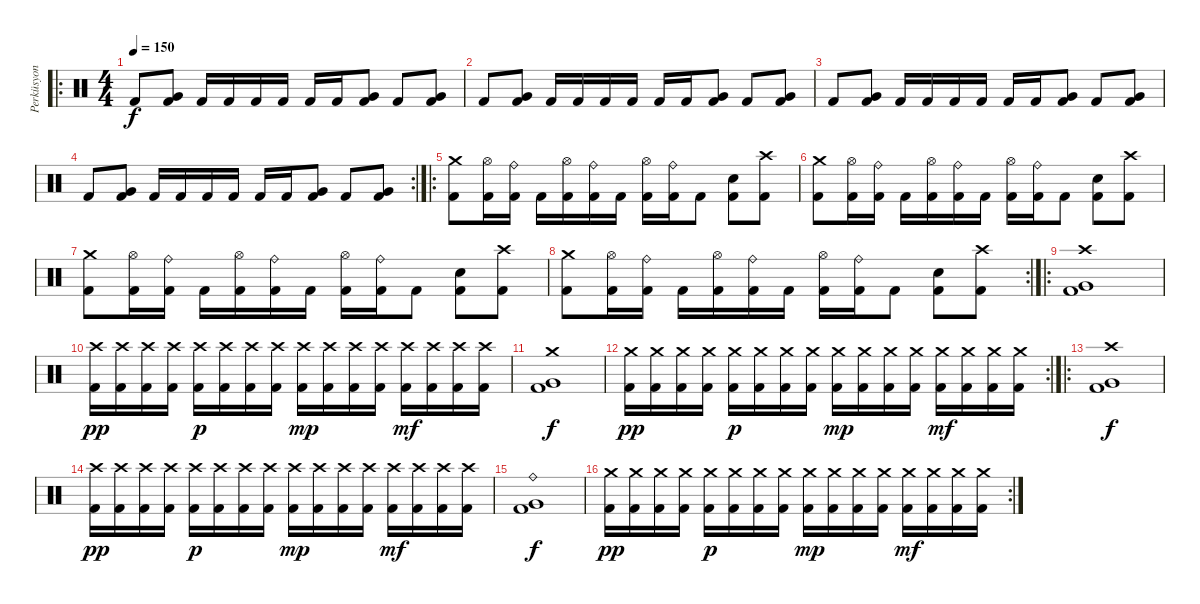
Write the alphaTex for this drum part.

\track ("Perküsyon" "Perküsyon") {instrument percussion}
\staff {score}
\articulation defaults
\ro
\ts (4 4)
\tempo 150
\clef neutral
\ks c "Kick (hit) 2".8{dy f}
("Very Low Tom (hit)" "Kick (hit) 2").8 "Kick (hit) 2".16 "Kick (hit) 2".16 "Kick (hit) 2".16 "Kick (hit) 2".16 "Kick (hit) 2".16 "Kick (hit) 2".16 ("Very Low Tom (hit)" "Kick (hit) 2").8 "Kick (hit) 2".8 ("Very Low Tom (hit)" "Kick (hit) 2").8 |
"Kick (hit) 2".8 ("Very Low Tom (hit)" "Kick (hit) 2").8 "Kick (hit) 2".16 "Kick (hit) 2".16 "Kick (hit) 2".16 "Kick (hit) 2".16 "Kick (hit) 2".16 "Kick (hit) 2".16 ("Very Low Tom (hit)" "Kick (hit) 2").8 "Kick (hit) 2".8 ("Very Low Tom (hit)" "Kick (hit) 2").8 |
"Kick (hit) 2".8 ("Very Low Tom (hit)" "Kick (hit) 2").8 "Kick (hit) 2".16 "Kick (hit) 2".16 "Kick (hit) 2".16 "Kick (hit) 2".16 "Kick (hit) 2".16 "Kick (hit) 2".16 ("Very Low Tom (hit)" "Kick (hit) 2").8 "Kick (hit) 2".8 ("Very Low Tom (hit)" "Kick (hit) 2").8 |
\rc 2 "Kick (hit) 2".8
("Very Low Tom (hit)" "Kick (hit) 2").8 "Kick (hit) 2".16 "Kick (hit) 2".16 "Kick (hit) 2".16 "Kick (hit) 2".16 "Kick (hit) 2".16 "Kick (hit) 2".16 ("Very Low Tom (hit)" "Kick (hit) 2").8 "Kick (hit) 2".8 ("Very Low Tom (hit)" "Kick (hit) 2").8 |
\ro
("Crash medium (hit)" "Kick (hit) 2").8 ("Hi-Hat (open)" "Kick (hit) 2").16 ("Ride (bell)" "Kick (hit) 2").16 "Kick (hit) 2".16 ("Hi-Hat (open)" "Kick (hit) 2").16 ("Ride (bell)" "Kick (hit) 2").16 "Kick (hit) 2".16 ("Hi-Hat (open)" "Kick (hit) 2").16 ("Ride (bell)" "Kick (hit) 2").16 "Kick (hit) 2".8 ("Snare (hit) 2" "Kick (hit) 2").8 ("Crash high (hit)" "Kick (hit) 2").8 |
("Crash medium (hit)" "Kick (hit) 2").8 ("Hi-Hat (open)" "Kick (hit) 2").16 ("Ride (bell)" "Kick (hit) 2").16 "Kick (hit) 2".16 ("Hi-Hat (open)" "Kick (hit) 2").16 ("Ride (bell)" "Kick (hit) 2").16 "Kick (hit) 2".16 ("Hi-Hat (open)" "Kick (hit) 2").16 ("Ride (bell)" "Kick (hit) 2").16 "Kick (hit) 2".8 ("Snare (hit) 2" "Kick (hit) 2").8 ("Crash high (hit)" "Kick (hit) 2").8 |
("Crash medium (hit)" "Kick (hit) 2").8 ("Hi-Hat (open)" "Kick (hit) 2").16 ("Ride (bell)" "Kick (hit) 2").16 "Kick (hit) 2".16 ("Hi-Hat (open)" "Kick (hit) 2").16 ("Ride (bell)" "Kick (hit) 2").16 "Kick (hit) 2".16 ("Hi-Hat (open)" "Kick (hit) 2").16 ("Ride (bell)" "Kick (hit) 2").16 "Kick (hit) 2".8 ("Snare (hit) 2" "Kick (hit) 2").8 ("Crash high (hit)" "Kick (hit) 2").8 |
\rc 2
("Crash medium (hit)" "Kick (hit) 2").8 ("Hi-Hat (open)" "Kick (hit) 2").16 ("Ride (bell)" "Kick (hit) 2").16 "Kick (hit) 2".16 ("Hi-Hat (open)" "Kick (hit) 2").16 ("Ride (bell)" "Kick (hit) 2").16 "Kick (hit) 2".16 ("Hi-Hat (open)" "Kick (hit) 2").16 ("Ride (bell)" "Kick (hit) 2").16 "Kick (hit) 2".8 ("Snare (hit) 2" "Kick (hit) 2").8 ("Crash high (hit)" "Kick (hit) 2").8 |
\ro
("Crash high (hit)" "Kick (hit) 2" "Very Low Tom (hit)").1 |
("Kick (hit) 2" "Crash high (hit)").16{dy pp} ("Kick (hit) 2" "Crash high (hit)").16 ("Kick (hit) 2" "Crash high (hit)").16 ("Kick (hit) 2" "Crash high (hit)").16 ("Kick (hit) 2" "Crash high (hit)").16{dy p} ("Kick (hit) 2" "Crash high (hit)").16 ("Kick (hit) 2" "Crash high (hit)").16 ("Kick (hit) 2" "Crash high (hit)").16 ("Kick (hit) 2" "Crash high (hit)").16{dy mp} ("Kick (hit) 2" "Crash high (hit)").16 ("Kick (hit) 2" "Crash high (hit)").16 ("Kick (hit) 2" "Crash high (hit)").16 ("Kick (hit) 2" "Crash high (hit)").16{dy mf} ("Kick (hit) 2" "Crash high (hit)").16 ("Kick (hit) 2" "Crash high (hit)").16 ("Kick (hit) 2" "Crash high (hit)").16 |
("Crash medium (hit)" "Kick (hit) 2" "Very Low Tom (hit)").1{dy f} |
\rc 2
("Kick (hit) 2" "Crash medium (hit)").16{dy pp} ("Kick (hit) 2" "Crash medium (hit)").16 ("Kick (hit) 2" "Crash medium (hit)").16 ("Kick (hit) 2" "Crash medium (hit)").16 ("Kick (hit) 2" "Crash medium (hit)").16{dy p} ("Kick (hit) 2" "Crash medium (hit)").16 ("Kick (hit) 2" "Crash medium (hit)").16 ("Kick (hit) 2" "Crash medium (hit)").16 ("Kick (hit) 2" "Crash medium (hit)").16{dy mp} ("Kick (hit) 2" "Crash medium (hit)").16 ("Kick (hit) 2" "Crash medium (hit)").16 ("Kick (hit) 2" "Crash medium (hit)").16 ("Kick (hit) 2" "Crash medium (hit)").16{dy mf} ("Kick (hit) 2" "Crash medium (hit)").16 ("Kick (hit) 2" "Crash medium (hit)").16 ("Kick (hit) 2" "Crash medium (hit)").16 |
\ro
("Crash high (hit)" "Kick (hit) 2" "Very Low Tom (hit)").1{dy f} |
("Kick (hit) 2" "Crash high (hit)").16{dy pp} ("Kick (hit) 2" "Crash high (hit)").16 ("Kick (hit) 2" "Crash high (hit)").16 ("Kick (hit) 2" "Crash high (hit)").16 ("Kick (hit) 2" "Crash high (hit)").16{dy p} ("Kick (hit) 2" "Crash high (hit)").16 ("Kick (hit) 2" "Crash high (hit)").16 ("Kick (hit) 2" "Crash high (hit)").16 ("Kick (hit) 2" "Crash high (hit)").16{dy mp} ("Kick (hit) 2" "Crash high (hit)").16 ("Kick (hit) 2" "Crash high (hit)").16 ("Kick (hit) 2" "Crash high (hit)").16 ("Kick (hit) 2" "Crash high (hit)").16{dy mf} ("Kick (hit) 2" "Crash high (hit)").16 ("Kick (hit) 2" "Crash high (hit)").16 ("Kick (hit) 2" "Crash high (hit)").16 |
("Ride (bell)" "Kick (hit) 2" "Very Low Tom (hit)").1{dy f} |
\rc 2
("Kick (hit) 2" "Crash medium (hit)").16{dy pp} ("Kick (hit) 2" "Crash medium (hit)").16 ("Kick (hit) 2" "Crash medium (hit)").16 ("Kick (hit) 2" "Crash medium (hit)").16 ("Kick (hit) 2" "Crash medium (hit)").16{dy p} ("Kick (hit) 2" "Crash medium (hit)").16 ("Kick (hit) 2" "Crash medium (hit)").16 ("Kick (hit) 2" "Crash medium (hit)").16 ("Kick (hit) 2" "Crash medium (hit)").16{dy mp} ("Kick (hit) 2" "Crash medium (hit)").16 ("Kick (hit) 2" "Crash medium (hit)").16 ("Kick (hit) 2" "Crash medium (hit)").16 ("Kick (hit) 2" "Crash medium (hit)").16{dy mf} ("Kick (hit) 2" "Crash medium (hit)").16 ("Kick (hit) 2" "Crash medium (hit)").16 ("Kick (hit) 2" "Crash medium (hit)").16
